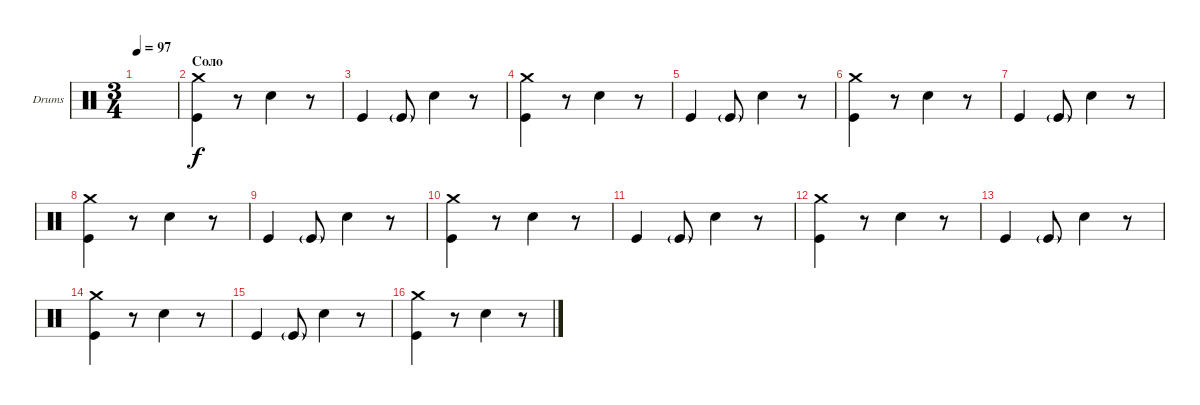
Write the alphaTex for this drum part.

\defaultSystemsLayout 4
\bracketExtendMode groupsimilarinstruments
\firstSystemTrackNameOrientation horizontal
\otherSystemsTrackNameOrientation horizontal
\track ("Е. Кулаков" "Drums") {instrument percussion}
\staff {score}
\articulation defaults
\ts (3 4)
\tempo 97
\clef neutral
\ks c
|
\section ("" "Соло")
("Kick (hit)" "Crash medium (hit)").4 r.8 "Snare (hit) 2".4 r.8 |
"Kick (hit)".4 "Kick (hit)"{g}.8 "Snare (hit) 2".4 r.8 |
("Kick (hit)" "Crash medium (hit)").4 r.8 "Snare (hit) 2".4 r.8 |
"Kick (hit)".4 "Kick (hit)"{g}.8 "Snare (hit) 2".4 r.8 |
("Kick (hit)" "Crash medium (hit)").4 r.8 "Snare (hit) 2".4 r.8 |
"Kick (hit)".4 "Kick (hit)"{g}.8 "Snare (hit) 2".4 r.8 |
("Kick (hit)" "Crash medium (hit)").4 r.8 "Snare (hit) 2".4 r.8 |
"Kick (hit)".4 "Kick (hit)"{g}.8 "Snare (hit) 2".4 r.8 |
("Kick (hit)" "Crash medium (hit)").4 r.8 "Snare (hit) 2".4 r.8 |
"Kick (hit)".4 "Kick (hit)"{g}.8 "Snare (hit) 2".4 r.8 |
("Kick (hit)" "Crash medium (hit)").4 r.8 "Snare (hit) 2".4 r.8 |
"Kick (hit)".4 "Kick (hit)"{g}.8 "Snare (hit) 2".4 r.8 |
("Kick (hit)" "Crash medium (hit)").4 r.8 "Snare (hit) 2".4 r.8 |
"Kick (hit)".4 "Kick (hit)"{g}.8 "Snare (hit) 2".4 r.8 |
("Kick (hit)" "Crash medium (hit)").4 r.8 "Snare (hit) 2".4 r.8
